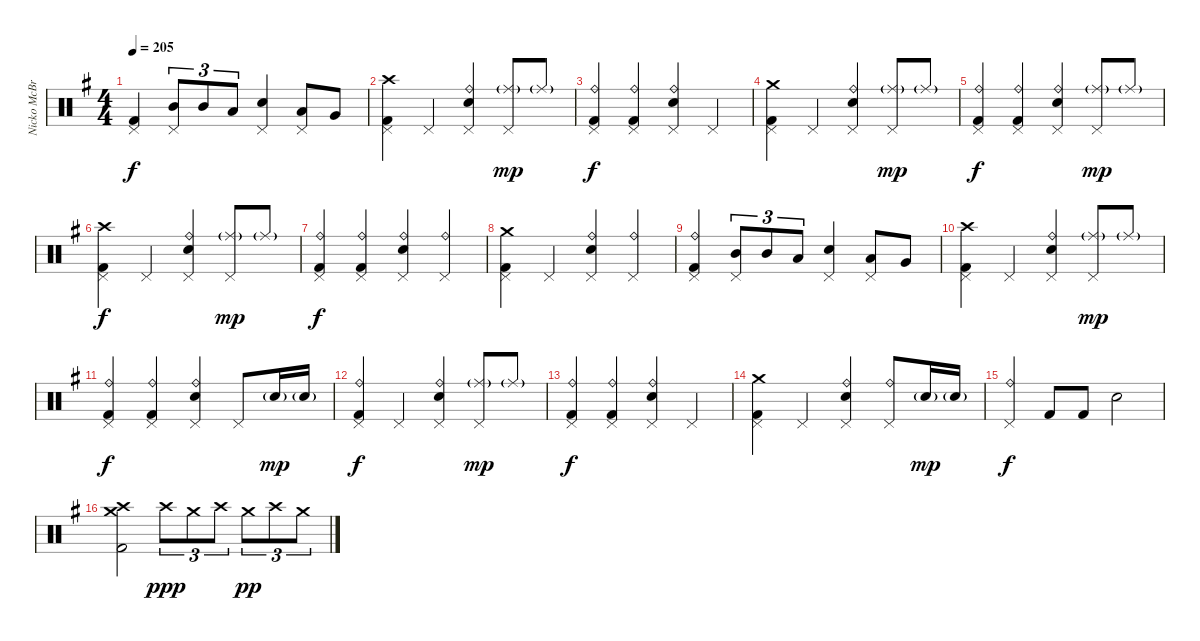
\track ("Nicko McBrain (Drums)" "Nicko McBr") {instrument percussion}
\staff {score}
\articulation defaults
\ts (4 4)
\tempo 205
\clef neutral
\ks eminor
("Pedal Hi-Hat (hit)" "Kick (hit) 2").4{dy f} ("Pedal Hi-Hat (hit)" "Mid Tom (hit)").8{tu (3 2)} "Mid Tom (hit)".8{tu (3 2)} "Low Tom (hit)".8{tu (3 2)} ("Pedal Hi-Hat (hit)" "Snare (hit) 2").4 ("Pedal Hi-Hat (hit)" "Low Tom (hit)").8 "Very Low Tom (hit)".8 |
("Crash high (hit)" "Pedal Hi-Hat (hit)" "Kick (hit) 2").4 "Pedal Hi-Hat (hit)".4 ("Ride (bell)" "Pedal Hi-Hat (hit)" "Snare (hit) 2").4 ("Ride (middle)"{g} "Pedal Hi-Hat (hit)").8{dy mp} "Ride (middle)"{g}.8 |
("Ride (bell)" "Pedal Hi-Hat (hit)" "Kick (hit) 2").4{dy f} ("Ride (bell)" "Pedal Hi-Hat (hit)" "Kick (hit) 2").4 ("Ride (bell)" "Pedal Hi-Hat (hit)" "Snare (hit) 2").4 "Pedal Hi-Hat (hit)".4 |
("Crash medium (hit)" "Pedal Hi-Hat (hit)" "Kick (hit) 2").4 "Pedal Hi-Hat (hit)".4 ("Ride (bell)" "Pedal Hi-Hat (hit)" "Snare (hit) 2").4 ("Ride (middle)"{g} "Pedal Hi-Hat (hit)").8{dy mp} "Ride (middle)"{g}.8 |
("Ride (bell)" "Pedal Hi-Hat (hit)" "Kick (hit) 2").4{dy f} ("Ride (bell)" "Pedal Hi-Hat (hit)" "Kick (hit) 2").4 ("Ride (bell)" "Pedal Hi-Hat (hit)" "Snare (hit) 2").4 ("Ride (middle)"{g} "Pedal Hi-Hat (hit)").8{dy mp} "Ride (middle)"{g}.8 |
("Crash high (hit)" "Pedal Hi-Hat (hit)" "Kick (hit) 2").4{dy f} "Pedal Hi-Hat (hit)".4 ("Ride (bell)" "Pedal Hi-Hat (hit)" "Snare (hit) 2").4 ("Ride (middle)"{g} "Pedal Hi-Hat (hit)").8{dy mp} "Ride (middle)"{g}.8 |
("Ride (bell)" "Pedal Hi-Hat (hit)" "Kick (hit) 2").4{dy f} ("Ride (bell)" "Pedal Hi-Hat (hit)" "Kick (hit) 2").4 ("Ride (bell)" "Pedal Hi-Hat (hit)" "Snare (hit) 2").4 ("Ride (bell)" "Pedal Hi-Hat (hit)").4 |
("Crash medium (hit)" "Pedal Hi-Hat (hit)" "Kick (hit) 2").4 "Pedal Hi-Hat (hit)".4 ("Ride (bell)" "Pedal Hi-Hat (hit)" "Snare (hit) 2").4 ("Ride (bell)" "Pedal Hi-Hat (hit)").4 |
("Ride (bell)" "Pedal Hi-Hat (hit)" "Kick (hit) 2").4 ("Pedal Hi-Hat (hit)" "Mid Tom (hit)").8{tu (3 2)} "Mid Tom (hit)".8{tu (3 2)} "Low Tom (hit)".8{tu (3 2)} ("Pedal Hi-Hat (hit)" "Snare (hit) 2").4 ("Pedal Hi-Hat (hit)" "Low Tom (hit)").8 "Very Low Tom (hit)".8 |
("Crash high (hit)" "Pedal Hi-Hat (hit)" "Kick (hit) 2").4 "Pedal Hi-Hat (hit)".4 ("Ride (bell)" "Pedal Hi-Hat (hit)" "Snare (hit) 2").4 ("Ride (middle)"{g} "Pedal Hi-Hat (hit)").8{dy mp} "Ride (middle)"{g}.8 |
("Ride (bell)" "Pedal Hi-Hat (hit)" "Kick (hit) 2").4{dy f} ("Ride (bell)" "Pedal Hi-Hat (hit)" "Kick (hit) 2").4 ("Ride (bell)" "Pedal Hi-Hat (hit)" "Snare (hit) 2").4 "Pedal Hi-Hat (hit)".8 "Snare (hit) 2"{g}.16{dy mp} "Snare (hit) 2"{g}.16 |
("Ride (bell)" "Pedal Hi-Hat (hit)" "Kick (hit) 2").4{dy f} "Pedal Hi-Hat (hit)".4 ("Ride (bell)" "Pedal Hi-Hat (hit)" "Snare (hit) 2").4 ("Ride (middle)"{g} "Pedal Hi-Hat (hit)").8{dy mp} "Ride (middle)"{g}.8 |
("Ride (bell)" "Pedal Hi-Hat (hit)" "Kick (hit) 2").4{dy f} ("Ride (bell)" "Pedal Hi-Hat (hit)" "Kick (hit) 2").4 ("Ride (bell)" "Pedal Hi-Hat (hit)" "Snare (hit) 2").4 "Pedal Hi-Hat (hit)".4 |
("Crash medium (hit)" "Pedal Hi-Hat (hit)" "Kick (hit) 2").4 "Pedal Hi-Hat (hit)".4 ("Ride (bell)" "Pedal Hi-Hat (hit)" "Snare (hit) 2").4 ("Ride (bell)" "Pedal Hi-Hat (hit)").8 "Snare (hit) 2"{g}.16{dy mp} "Snare (hit) 2"{g}.16 |
("Ride (bell)" "Pedal Hi-Hat (hit)").4{dy f} "Kick (hit) 2".8 "Kick (hit) 2".8 "Snare (hit) 2".2 |
("Crash high (hit)" "Crash medium (hit)" "Kick (hit) 2").2 "Crash high (hit)".8{tu (3 2) dy ppp} "Crash medium (hit)".8{tu (3 2)} "Crash high (hit)".8{tu (3 2)} "Crash medium (hit)".8{tu (3 2) dy pp} "Crash high (hit)".8{tu (3 2)} "Crash medium (hit)".8{tu (3 2)}
